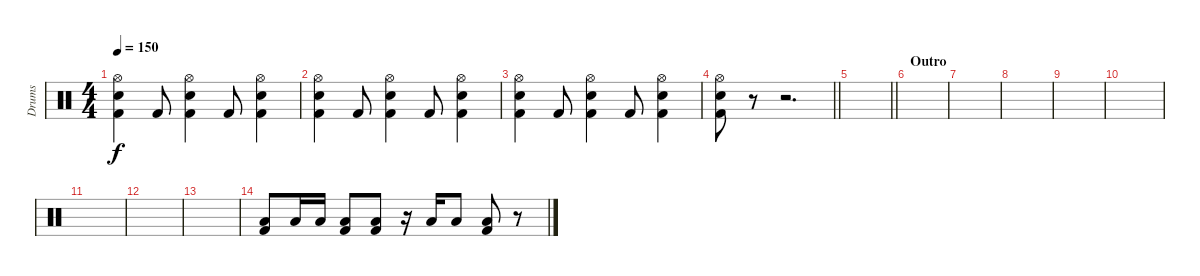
\track ("Drums" "Drums") {instrument percussion}
\staff {score}
\articulation defaults
\ts (4 4)
\tempo 150
\clef neutral
\ks c
("Hi-Hat (open)" "Snare (hit) 2" "Kick (hit) 2").4{dy f} "Kick (hit) 2".8 ("Hi-Hat (open)" "Snare (hit) 2" "Kick (hit) 2").4 "Kick (hit) 2".8 ("Hi-Hat (open)" "Snare (hit) 2" "Kick (hit) 2").4 |
("Hi-Hat (open)" "Snare (hit) 2" "Kick (hit) 2").4 "Kick (hit) 2".8 ("Hi-Hat (open)" "Snare (hit) 2" "Kick (hit) 2").4 "Kick (hit) 2".8 ("Hi-Hat (open)" "Snare (hit) 2" "Kick (hit) 2").4 |
("Hi-Hat (open)" "Snare (hit) 2" "Kick (hit) 2").4 "Kick (hit) 2".8 ("Hi-Hat (open)" "Snare (hit) 2" "Kick (hit) 2").4 "Kick (hit) 2".8 ("Hi-Hat (open)" "Snare (hit) 2" "Kick (hit) 2").4 |
\barLineRight lightlight
("Hi-Hat (open)" "Snare (hit) 2" "Kick (hit) 2").8 r.8 r.2{d} |
\barLineRight lightlight
|
\section ("" "Outro")
|
|
|
|
|
|
|
|
("Low Tom (hit)" "Kick (hit) 2").8 "Low Tom (hit)".16 "Low Tom (hit)".16 ("Low Tom (hit)" "Kick (hit) 2").8 ("Low Tom (hit)" "Kick (hit) 2").8 r.16 "Low Tom (hit)".16 "Low Tom (hit)".8 ("Low Tom (hit)" "Kick (hit) 2").8 r.8
